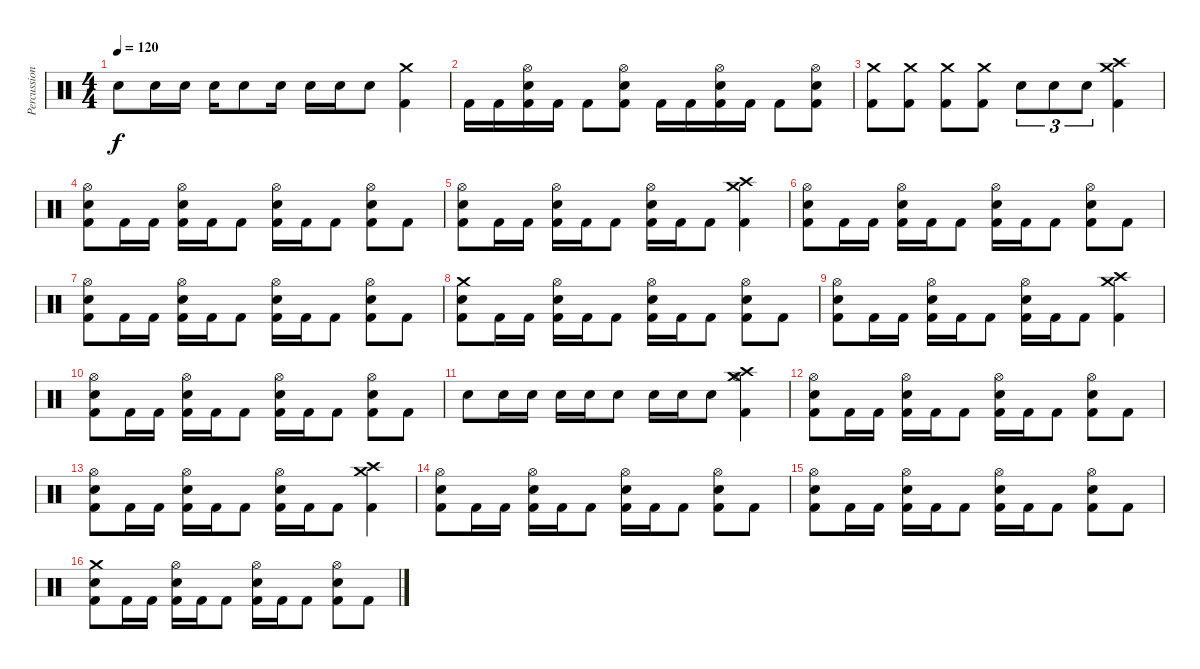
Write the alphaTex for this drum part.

\track ("Percussion" "Percussion") {instrument percussion}
\staff {score}
\articulation defaults
\ts (4 4)
\tempo 120
\clef neutral
\ks c "Snare (hit) 2".8{dy f} "Snare (hit) 2".16 "Snare (hit) 2".16 "Snare (hit) 2".16 "Snare (hit) 2".8 "Snare (hit) 2".16 "Snare (hit) 2".16 "Snare (hit) 2".16 "Snare (hit) 2".8
("Kick (hit) 2" "Crash medium (hit)").4 |
"Kick (hit) 2".16 "Kick (hit) 2".16 ("Hi-Hat (open)" "Snare (hit) 2" "Kick (hit) 2").16 "Kick (hit) 2".16 "Kick (hit) 2".8 ("Hi-Hat (open)" "Snare (hit) 2" "Kick (hit) 2").8 "Kick (hit) 2".16 "Kick (hit) 2".16 ("Hi-Hat (open)" "Snare (hit) 2" "Kick (hit) 2").16 "Kick (hit) 2".16 "Kick (hit) 2".8 ("Hi-Hat (open)" "Snare (hit) 2" "Kick (hit) 2").8 |
("Kick (hit) 2" "Crash medium (hit)").8 ("Kick (hit) 2" "Crash medium (hit)").8 ("Kick (hit) 2" "Crash medium (hit)").8 ("Kick (hit) 2" "Crash medium (hit)").8 "Snare (hit) 2".8{tu (3 2)} "Snare (hit) 2".8{tu (3 2)} "Snare (hit) 2".8{tu (3 2)} ("Kick (hit) 2" "Crash high (hit)" "Crash medium (hit)").4 |
("Kick (hit) 2" "Snare (hit) 2" "Hi-Hat (open)").8 "Kick (hit) 2".16 "Kick (hit) 2".16 ("Kick (hit) 2" "Snare (hit) 2" "Hi-Hat (open)").16 "Kick (hit) 2".16 "Kick (hit) 2".8 ("Kick (hit) 2" "Snare (hit) 2" "Hi-Hat (open)").16 "Kick (hit) 2".16 "Kick (hit) 2".8 ("Kick (hit) 2" "Snare (hit) 2" "Hi-Hat (open)").8 "Kick (hit) 2".8 |
("Kick (hit) 2" "Snare (hit) 2" "Hi-Hat (open)").8 "Kick (hit) 2".16 "Kick (hit) 2".16 ("Kick (hit) 2" "Snare (hit) 2" "Hi-Hat (open)").16 "Kick (hit) 2".16 "Kick (hit) 2".8 ("Kick (hit) 2" "Snare (hit) 2" "Hi-Hat (open)").16 "Kick (hit) 2".16 "Kick (hit) 2".8 ("Kick (hit) 2" "Crash high (hit)" "Crash medium (hit)").4 |
("Kick (hit) 2" "Snare (hit) 2" "Hi-Hat (open)").8 "Kick (hit) 2".16 "Kick (hit) 2".16 ("Kick (hit) 2" "Snare (hit) 2" "Hi-Hat (open)").16 "Kick (hit) 2".16 "Kick (hit) 2".8 ("Kick (hit) 2" "Snare (hit) 2" "Hi-Hat (open)").16 "Kick (hit) 2".16 "Kick (hit) 2".8 ("Kick (hit) 2" "Snare (hit) 2" "Hi-Hat (open)").8 "Kick (hit) 2".8 |
("Kick (hit) 2" "Snare (hit) 2" "Hi-Hat (open)").8 "Kick (hit) 2".16 "Kick (hit) 2".16 ("Kick (hit) 2" "Snare (hit) 2" "Hi-Hat (open)").16 "Kick (hit) 2".16 "Kick (hit) 2".8 ("Kick (hit) 2" "Snare (hit) 2" "Hi-Hat (open)").16 "Kick (hit) 2".16 "Kick (hit) 2".8 ("Kick (hit) 2" "Snare (hit) 2" "Hi-Hat (open)").8 "Kick (hit) 2".8 |
("Kick (hit) 2" "Snare (hit) 2" "Crash medium (hit)").8 "Kick (hit) 2".16 "Kick (hit) 2".16 ("Kick (hit) 2" "Snare (hit) 2" "Hi-Hat (open)").16 "Kick (hit) 2".16 "Kick (hit) 2".8 ("Kick (hit) 2" "Snare (hit) 2" "Hi-Hat (open)").16 "Kick (hit) 2".16 "Kick (hit) 2".8 ("Kick (hit) 2" "Snare (hit) 2" "Hi-Hat (open)").8 "Kick (hit) 2".8 |
("Kick (hit) 2" "Snare (hit) 2" "Hi-Hat (open)").8 "Kick (hit) 2".16 "Kick (hit) 2".16 ("Kick (hit) 2" "Snare (hit) 2" "Hi-Hat (open)").16 "Kick (hit) 2".16 "Kick (hit) 2".8 ("Kick (hit) 2" "Snare (hit) 2" "Hi-Hat (open)").16 "Kick (hit) 2".16 "Kick (hit) 2".8 ("Kick (hit) 2" "Crash high (hit)" "Crash medium (hit)").4 |
("Kick (hit) 2" "Snare (hit) 2" "Hi-Hat (open)").8 "Kick (hit) 2".16 "Kick (hit) 2".16 ("Kick (hit) 2" "Snare (hit) 2" "Hi-Hat (open)").16 "Kick (hit) 2".16 "Kick (hit) 2".8 ("Kick (hit) 2" "Snare (hit) 2" "Hi-Hat (open)").16 "Kick (hit) 2".16 "Kick (hit) 2".8 ("Kick (hit) 2" "Snare (hit) 2" "Hi-Hat (open)").8 "Kick (hit) 2".8 |
"Snare (hit) 2".8 "Snare (hit) 2".16 "Snare (hit) 2".16 "Snare (hit) 2".16 "Snare (hit) 2".16 "Snare (hit) 2".8 "Snare (hit) 2".16 "Snare (hit) 2".16 "Snare (hit) 2".8 ("Hi-Hat (open)" "Kick (hit) 2" "Crash medium (hit)" "Crash high (hit)").4 |
("Kick (hit) 2" "Snare (hit) 2" "Hi-Hat (open)").8 "Kick (hit) 2".16 "Kick (hit) 2".16 ("Kick (hit) 2" "Snare (hit) 2" "Hi-Hat (open)").16 "Kick (hit) 2".16 "Kick (hit) 2".8 ("Kick (hit) 2" "Snare (hit) 2" "Hi-Hat (open)").16 "Kick (hit) 2".16 "Kick (hit) 2".8 ("Kick (hit) 2" "Snare (hit) 2" "Hi-Hat (open)").8 "Kick (hit) 2".8 |
("Kick (hit) 2" "Snare (hit) 2" "Hi-Hat (open)").8 "Kick (hit) 2".16 "Kick (hit) 2".16 ("Kick (hit) 2" "Snare (hit) 2" "Hi-Hat (open)").16 "Kick (hit) 2".16 "Kick (hit) 2".8 ("Kick (hit) 2" "Snare (hit) 2" "Hi-Hat (open)").16 "Kick (hit) 2".16 "Kick (hit) 2".8 ("Kick (hit) 2" "Crash high (hit)" "Crash medium (hit)").4 |
("Kick (hit) 2" "Snare (hit) 2" "Hi-Hat (open)").8 "Kick (hit) 2".16 "Kick (hit) 2".16 ("Kick (hit) 2" "Snare (hit) 2" "Hi-Hat (open)").16 "Kick (hit) 2".16 "Kick (hit) 2".8 ("Kick (hit) 2" "Snare (hit) 2" "Hi-Hat (open)").16 "Kick (hit) 2".16 "Kick (hit) 2".8 ("Kick (hit) 2" "Snare (hit) 2" "Hi-Hat (open)").8 "Kick (hit) 2".8 |
("Kick (hit) 2" "Snare (hit) 2" "Hi-Hat (open)").8 "Kick (hit) 2".16 "Kick (hit) 2".16 ("Kick (hit) 2" "Snare (hit) 2" "Hi-Hat (open)").16 "Kick (hit) 2".16 "Kick (hit) 2".8 ("Kick (hit) 2" "Snare (hit) 2" "Hi-Hat (open)").16 "Kick (hit) 2".16 "Kick (hit) 2".8 ("Kick (hit) 2" "Snare (hit) 2" "Hi-Hat (open)").8 "Kick (hit) 2".8 |
("Kick (hit) 2" "Snare (hit) 2" "Crash medium (hit)").8 "Kick (hit) 2".16 "Kick (hit) 2".16 ("Kick (hit) 2" "Snare (hit) 2" "Hi-Hat (open)").16 "Kick (hit) 2".16 "Kick (hit) 2".8 ("Kick (hit) 2" "Snare (hit) 2" "Hi-Hat (open)").16 "Kick (hit) 2".16 "Kick (hit) 2".8 ("Kick (hit) 2" "Snare (hit) 2" "Hi-Hat (open)").8 "Kick (hit) 2".8
